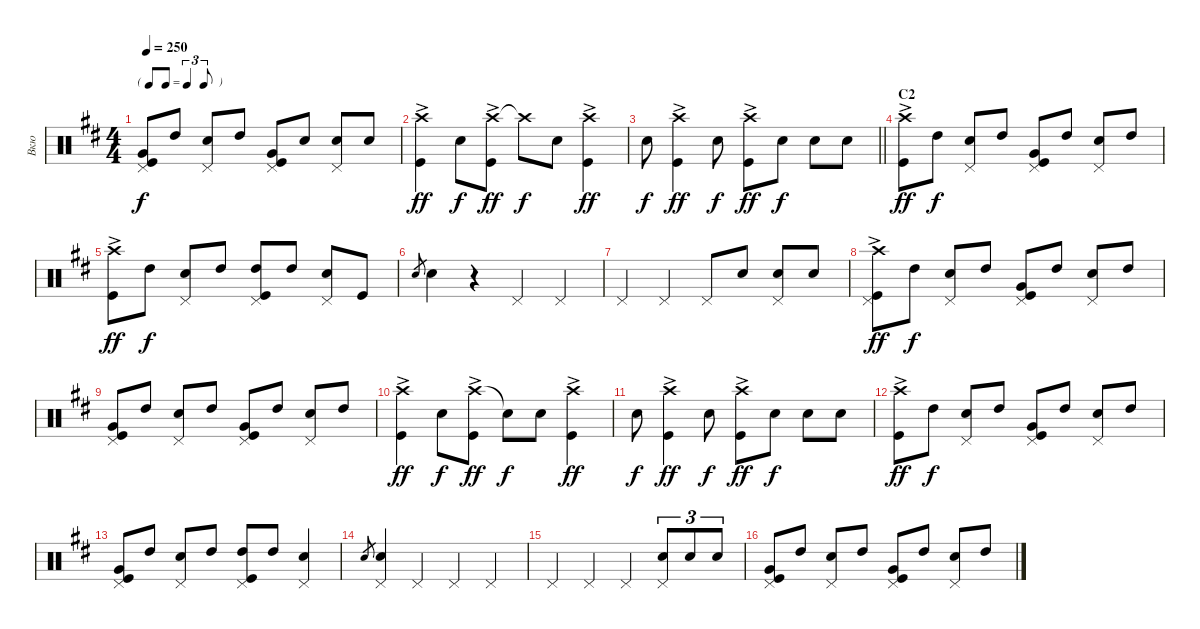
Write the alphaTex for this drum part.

\track ("Вкю" "Вкю") {instrument percussion}
\staff {score}
\articulation defaults
\ts (4 4)
\tf triplet8th
\tempo 250
\clef neutral
\ks d
("Very Low Tom (hit)" "Kick (hit)" "Pedal Hi-Hat (hit)").8{dy f} "High Tom (hit)".8 ("Snare (hit) 2" "Pedal Hi-Hat (hit)").8 "High Tom (hit)".8 ("Very Low Tom (hit)" "Kick (hit)" "Pedal Hi-Hat (hit)").8 "Snare (hit) 2".8 ("Snare (hit) 2" "Pedal Hi-Hat (hit)").8 "Snare (hit) 2".8 |
("Crash high (hit)"{ac} "Kick (hit)"{ac}).4{dy ff} "Snare (hit) 2".8{dy f} ("Crash high (hit)"{ac} "Kick (hit)").8{dy ff} "Crash high (hit)"{t}.8{dy f} "Snare (hit) 2".8 ("Crash high (hit)"{ac} "Kick (hit)"{ac}).4{dy ff} |
\barLineRight lightlight "Snare (hit) 2".8{dy f}
("Crash high (hit)"{ac} "Kick (hit)"{ac}).4{dy ff} "Snare (hit) 2".8{dy f} ("Crash high (hit)"{ac} "Kick (hit)"{ac}).8{dy ff} "Snare (hit) 2".8{dy f} "Snare (hit) 2".8 "Snare (hit) 2".8 |
\section ("" "C2")
("Crash high (hit)"{ac} "Kick (hit)"{ac}).8{dy ff} "High Tom (hit)".8{dy f} ("Snare (hit) 2" "Pedal Hi-Hat (hit)").8 "High Tom (hit)".8 ("Very Low Tom (hit)" "Kick (hit)" "Pedal Hi-Hat (hit)").8 "High Tom (hit)".8 ("Snare (hit) 2" "Pedal Hi-Hat (hit)").8 "High Tom (hit)".8 |
("Crash high (hit)"{ac} "Kick (hit)"{ac}).8{dy ff} "High Tom (hit)".8{dy f} ("Snare (hit) 2" "Pedal Hi-Hat (hit)").8 "High Tom (hit)".8 ("High Tom (hit)" "Kick (hit)" "Pedal Hi-Hat (hit)").8 "High Tom (hit)".8 ("Snare (hit) 2" "Pedal Hi-Hat (hit)").8 "Kick (hit)".8 |
"Snare (hit) 2".8{gr} "Snare (hit) 2".4 r.4 "Pedal Hi-Hat (hit)".4 "Pedal Hi-Hat (hit)".4 |
"Pedal Hi-Hat (hit)".4 "Pedal Hi-Hat (hit)".4 "Pedal Hi-Hat (hit)".8 "Snare (hit) 2".8 ("Snare (hit) 2" "Pedal Hi-Hat (hit)").8 "Snare (hit) 2".8 |
("Crash high (hit)"{ac} "Kick (hit)" "Pedal Hi-Hat (hit)").8{dy ff} "High Tom (hit)".8{dy f} ("Snare (hit) 2" "Pedal Hi-Hat (hit)").8 "High Tom (hit)".8 ("Very Low Tom (hit)" "Kick (hit)" "Pedal Hi-Hat (hit)").8 "High Tom (hit)".8 ("Snare (hit) 2" "Pedal Hi-Hat (hit)").8 "High Tom (hit)".8 |
("Very Low Tom (hit)" "Kick (hit)" "Pedal Hi-Hat (hit)").8 "High Tom (hit)".8 ("Snare (hit) 2" "Pedal Hi-Hat (hit)").8 "High Tom (hit)".8 ("Very Low Tom (hit)" "Kick (hit)" "Pedal Hi-Hat (hit)").8 "High Tom (hit)".8 ("Snare (hit) 2" "Pedal Hi-Hat (hit)").8 "High Tom (hit)".8 |
("Crash high (hit)"{ac} "Kick (hit)"{ac}).4{dy ff} "Snare (hit) 2".8{dy f} ("Crash high (hit)"{ac} "Kick (hit)"{ac}).8{dy ff} "Snare (hit)"{t}.8{dy f} "Snare (hit) 2".8 ("Crash high (hit)"{ac} "Kick (hit)"{ac}).4{dy ff} |
"Snare (hit) 2".8{dy f} ("Crash high (hit)"{ac} "Kick (hit)"{ac}).4{dy ff} "Snare (hit) 2".8{dy f} ("Crash high (hit)"{ac} "Kick (hit)"{ac}).8{dy ff} "Snare (hit) 2".8{dy f} "Snare (hit) 2".8 "Snare (hit) 2".8 |
("Crash high (hit)"{ac} "Kick (hit)"{ac}).8{dy ff} "High Tom (hit)".8{dy f} ("Snare (hit) 2" "Pedal Hi-Hat (hit)").8 "High Tom (hit)".8 ("Very Low Tom (hit)" "Kick (hit)" "Pedal Hi-Hat (hit)").8 "High Tom (hit)".8 ("Snare (hit) 2" "Pedal Hi-Hat (hit)").8 "High Tom (hit)".8 |
("Very Low Tom (hit)" "Kick (hit)" "Pedal Hi-Hat (hit)").8 "High Tom (hit)".8 ("Snare (hit) 2" "Pedal Hi-Hat (hit)").8 "High Tom (hit)".8 ("High Tom (hit)" "Kick (hit)" "Pedal Hi-Hat (hit)").8 "High Tom (hit)".8 ("Snare (hit) 2" "Pedal Hi-Hat (hit)").4 |
"Snare (hit) 2".8{gr} ("Snare (hit) 2" "Pedal Hi-Hat (hit)").4 "Pedal Hi-Hat (hit)".4 "Pedal Hi-Hat (hit)".4 "Pedal Hi-Hat (hit)".4 |
"Pedal Hi-Hat (hit)".4 "Pedal Hi-Hat (hit)".4 "Pedal Hi-Hat (hit)".4 ("Snare (hit) 2" "Pedal Hi-Hat (hit)").8{tu (3 2)} "Snare (hit) 2".8{tu (3 2)} "Snare (hit) 2".8{tu (3 2)} |
("Very Low Tom (hit)" "Kick (hit)" "Pedal Hi-Hat (hit)").8 "High Tom (hit)".8 ("Snare (hit) 2" "Pedal Hi-Hat (hit)").8 "High Tom (hit)".8 ("Very Low Tom (hit)" "Kick (hit)" "Pedal Hi-Hat (hit)").8 "High Tom (hit)".8 ("Snare (hit) 2" "Pedal Hi-Hat (hit)").8 "High Tom (hit)".8
